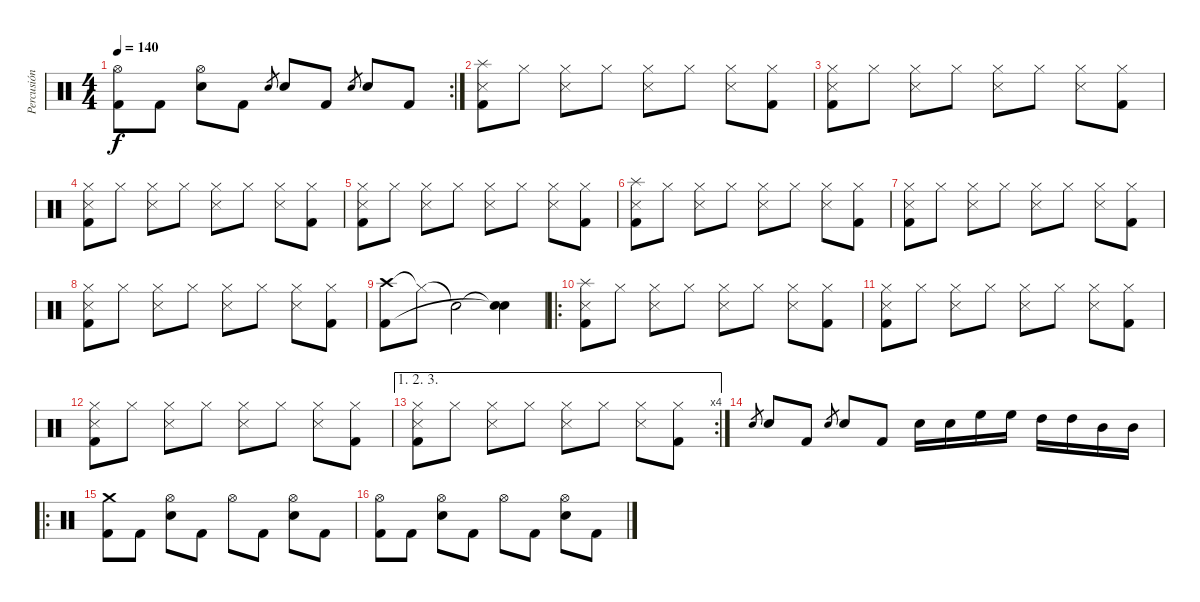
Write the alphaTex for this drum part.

\track ("Percusión" "Percusión") {instrument percussion}
\staff {score}
\articulation defaults
\rc 2
\ts (4 4)
\tempo 140
\clef neutral
\ks c
("Hi-Hat (open)" "Kick (hit) 2").8{dy f} "Kick (hit) 2".8 ("Hi-Hat (open)" "Electric Snare (hit)").8 "Kick (hit) 2".8 "Electric Snare (hit)".8{gr} "Electric Snare (hit)".8 "Kick (hit) 2".8 "Electric Snare (hit)".8{gr} "Electric Snare (hit)".8 "Kick (hit) 2".8 |
("Splash (hit)" "Snare (side stick) 3" "Kick (hit) 2").8 "Hi-Hat (closed)".8 ("Hi-Hat (closed)" "Snare (side stick) 3").8 "Hi-Hat (closed)".8 ("Hi-Hat (closed)" "Snare (side stick) 3").8 "Hi-Hat (closed)".8 ("Hi-Hat (closed)" "Snare (side stick) 3").8 ("Hi-Hat (closed)" "Kick (hit) 2").8 |
("Hi-Hat (closed)" "Snare (side stick) 3" "Kick (hit) 2").8 "Hi-Hat (closed)".8 ("Hi-Hat (closed)" "Snare (side stick) 3").8 "Hi-Hat (closed)".8 ("Hi-Hat (closed)" "Snare (side stick) 3").8 "Hi-Hat (closed)".8 ("Hi-Hat (closed)" "Snare (side stick) 3").8 ("Hi-Hat (closed)" "Kick (hit) 2").8 |
("Hi-Hat (closed)" "Snare (side stick) 3" "Kick (hit) 2").8 "Hi-Hat (closed)".8 ("Hi-Hat (closed)" "Snare (side stick) 3").8 "Hi-Hat (closed)".8 ("Hi-Hat (closed)" "Snare (side stick) 3").8 "Hi-Hat (closed)".8 ("Hi-Hat (closed)" "Snare (side stick) 3").8 ("Hi-Hat (closed)" "Kick (hit) 2").8 |
("Hi-Hat (closed)" "Snare (side stick) 3" "Kick (hit) 2").8 "Hi-Hat (closed)".8 ("Hi-Hat (closed)" "Snare (side stick) 3").8 "Hi-Hat (closed)".8 ("Hi-Hat (closed)" "Snare (side stick) 3").8 "Hi-Hat (closed)".8 ("Hi-Hat (closed)" "Snare (side stick) 3").8 ("Hi-Hat (closed)" "Kick (hit) 2").8 |
("Splash (hit)" "Snare (side stick) 3" "Kick (hit) 2").8 "Hi-Hat (closed)".8 ("Hi-Hat (closed)" "Snare (side stick) 3").8 "Hi-Hat (closed)".8 ("Hi-Hat (closed)" "Snare (side stick) 3").8 "Hi-Hat (closed)".8 ("Hi-Hat (closed)" "Snare (side stick) 3").8 ("Hi-Hat (closed)" "Kick (hit) 2").8 |
("Hi-Hat (closed)" "Snare (side stick) 3" "Kick (hit) 2").8 "Hi-Hat (closed)".8 ("Hi-Hat (closed)" "Snare (side stick) 3").8 "Hi-Hat (closed)".8 ("Hi-Hat (closed)" "Snare (side stick) 3").8 "Hi-Hat (closed)".8 ("Hi-Hat (closed)" "Snare (side stick) 3").8 ("Hi-Hat (closed)" "Kick (hit) 2").8 |
("Hi-Hat (closed)" "Snare (side stick) 3" "Kick (hit) 2").8 "Hi-Hat (closed)".8 ("Hi-Hat (closed)" "Snare (side stick) 3").8 "Hi-Hat (closed)".8 ("Hi-Hat (closed)" "Snare (side stick) 3").8 "Hi-Hat (closed)".8 ("Hi-Hat (closed)" "Snare (side stick) 3").8 ("Hi-Hat (closed)" "Kick (hit) 2").8 |
("Crash high (hit)" "Kick (hit) 2").8 "Hi-Hat (closed)"{t}.8 "Snare (hit)"{t}.2 ("Snare (hit)"{t} "Snare (hit)"{t}).4 |
\ro
("Splash (hit)" "Snare (side stick) 3" "Kick (hit) 2").8 "Hi-Hat (closed)".8 ("Hi-Hat (closed)" "Snare (side stick) 3").8 "Hi-Hat (closed)".8 ("Hi-Hat (closed)" "Snare (side stick) 3").8 "Hi-Hat (closed)".8 ("Hi-Hat (closed)" "Snare (side stick) 3").8 ("Hi-Hat (closed)" "Kick (hit) 2").8 |
("Hi-Hat (closed)" "Snare (side stick) 3" "Kick (hit) 2").8 "Hi-Hat (closed)".8 ("Hi-Hat (closed)" "Snare (side stick) 3").8 "Hi-Hat (closed)".8 ("Hi-Hat (closed)" "Snare (side stick) 3").8 "Hi-Hat (closed)".8 ("Hi-Hat (closed)" "Snare (side stick) 3").8 ("Hi-Hat (closed)" "Kick (hit) 2").8 |
("Hi-Hat (closed)" "Snare (side stick) 3" "Kick (hit) 2").8 "Hi-Hat (closed)".8 ("Hi-Hat (closed)" "Snare (side stick) 3").8 "Hi-Hat (closed)".8 ("Hi-Hat (closed)" "Snare (side stick) 3").8 "Hi-Hat (closed)".8 ("Hi-Hat (closed)" "Snare (side stick) 3").8 ("Hi-Hat (closed)" "Kick (hit) 2").8 |
\ae (1 2 3)
\rc 4
("Hi-Hat (closed)" "Snare (side stick) 3" "Kick (hit) 2").8 "Hi-Hat (closed)".8 ("Hi-Hat (closed)" "Snare (side stick) 3").8 "Hi-Hat (closed)".8 ("Hi-Hat (closed)" "Snare (side stick) 3").8 "Hi-Hat (closed)".8 ("Hi-Hat (closed)" "Snare (side stick) 3").8 ("Hi-Hat (closed)" "Kick (hit) 2").8 |
"Electric Snare (hit)".8{gr} "Electric Snare (hit)".8 "Kick (hit) 2".8 "Electric Snare (hit)".8{gr} "Electric Snare (hit)".8 "Kick (hit) 2".8 "Electric Snare (hit)".16 "Electric Snare (hit)".16 "High Floor Tom (hit)".16 "High Floor Tom (hit)".16 "High Tom (hit)".16 "High Tom (hit)".16 "Mid Tom (hit)".16 "Mid Tom (hit)".16 |
\ro
("Crash medium (hit)" "Kick (hit) 2").8 "Kick (hit) 2".8 ("Hi-Hat (open)" "Electric Snare (hit)").8 "Kick (hit) 2".8 "Hi-Hat (open)".8 "Kick (hit) 2".8 ("Hi-Hat (open)" "Electric Snare (hit)").8 "Kick (hit) 2".8 |
("Hi-Hat (open)" "Kick (hit) 2").8 "Kick (hit) 2".8 ("Hi-Hat (open)" "Electric Snare (hit)").8 "Kick (hit) 2".8 "Hi-Hat (open)".8 "Kick (hit) 2".8 ("Hi-Hat (open)" "Electric Snare (hit)").8 "Kick (hit) 2".8
